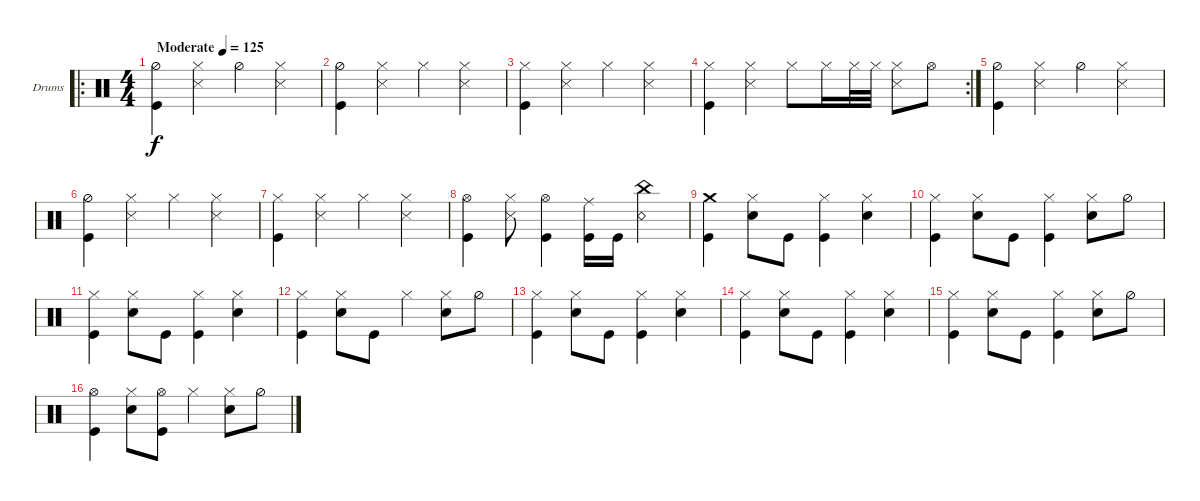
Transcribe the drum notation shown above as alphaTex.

\bracketExtendMode groupsimilarinstruments
\firstSystemTrackNameOrientation horizontal
\otherSystemsTrackNameOrientation horizontal
\track ("Drumkit" "Drums") {instrument percussion}
\staff {score}
\articulation defaults
\ro
\ts (4 4)
\beaming (8 2 2 2 2)
\tempo (125 "Moderate")
\clef neutral
\ks c
("Hi-Hat (half)" "Kick (hit)").4{dy f} ("Hi-Hat (closed)" "Snare (side stick) 3").4 "Hi-Hat (half)".4 ("Hi-Hat (closed)" "Snare (side stick) 3").4 |
("Hi-Hat (half)" "Kick (hit)").4 ("Hi-Hat (closed)" "Snare (side stick) 3").4 "Hi-Hat (closed)".4 ("Hi-Hat (closed)" "Snare (side stick) 3").4 |
("Hi-Hat (closed)" "Kick (hit)").4 ("Hi-Hat (closed)" "Snare (side stick) 3").4 "Hi-Hat (closed)".4 ("Hi-Hat (closed)" "Snare (side stick) 3").4 |
\rc 2
("Hi-Hat (closed)" "Kick (hit)").4 ("Hi-Hat (closed)" "Snare (side stick) 3").4 "Hi-Hat (closed)".8 "Hi-Hat (closed)".16 "Hi-Hat (closed)".32 "Hi-Hat (closed)".32 ("Snare (side stick) 3" "Hi-Hat (closed)").8 "Hi-Hat (open)".8 |
("Hi-Hat (half)" "Kick (hit)").4 ("Hi-Hat (closed)" "Snare (side stick) 3").4 "Hi-Hat (half)".4 ("Hi-Hat (closed)" "Snare (side stick) 3").4 |
("Hi-Hat (half)" "Kick (hit)").4 ("Hi-Hat (closed)" "Snare (side stick) 3").4 "Hi-Hat (closed)".4 ("Hi-Hat (closed)" "Snare (side stick) 3").4 |
("Hi-Hat (closed)" "Kick (hit)").4 ("Hi-Hat (closed)" "Snare (side stick) 3").4 "Hi-Hat (closed)".4 ("Hi-Hat (closed)" "Snare (side stick) 3").4 |
("Hi-Hat (open)" "Kick (hit)").4 ("Hi-Hat (closed)" "Snare (side stick) 3").8 ("Hi-Hat (open)" "Kick (hit)").4 ("Kick (hit)" "Ride (middle)").16 "Kick (hit)".16 ("Snare (rim shot)" "China (hit)").4 |
("Kick (hit)" "Crash medium (hit)").4 ("Snare (hit) 2" "Hi-Hat (closed)").8 "Kick (hit)".8 ("Hi-Hat (closed)" "Kick (hit)").4 ("Hi-Hat (closed)" "Snare (hit) 2").4 |
("Kick (hit)" "Hi-Hat (closed)").4 ("Snare (hit) 2" "Hi-Hat (closed)").8 "Kick (hit)".8 ("Hi-Hat (closed)" "Kick (hit)").4 ("Hi-Hat (closed)" "Snare (hit) 2").8 "Hi-Hat (half)".8 |
("Kick (hit)" "Hi-Hat (closed)").4 ("Snare (hit) 2" "Hi-Hat (closed)").8 "Kick (hit)".8 ("Hi-Hat (closed)" "Kick (hit)").4 ("Hi-Hat (closed)" "Snare (hit) 2").4 |
("Kick (hit)" "Hi-Hat (closed)").4 ("Snare (hit) 2" "Hi-Hat (closed)").8 "Kick (hit)".8 "Hi-Hat (closed)".4 ("Hi-Hat (closed)" "Snare (hit) 2").8 "Hi-Hat (half)".8 |
("Kick (hit)" "Hi-Hat (closed)").4 ("Snare (hit) 2" "Hi-Hat (closed)").8 "Kick (hit)".8 ("Hi-Hat (closed)" "Kick (hit)").4 ("Hi-Hat (closed)" "Snare (hit) 2").4 |
("Kick (hit)" "Hi-Hat (closed)").4 ("Snare (hit) 2" "Hi-Hat (closed)").8 "Kick (hit)".8 ("Hi-Hat (closed)" "Kick (hit)").4 ("Hi-Hat (closed)" "Snare (hit) 2").4 |
("Kick (hit)" "Hi-Hat (closed)").4 ("Snare (hit) 2" "Hi-Hat (closed)").8 "Kick (hit)".8 ("Hi-Hat (closed)" "Kick (hit)").4 ("Hi-Hat (closed)" "Snare (hit) 2").8 "Hi-Hat (half)".8 |
("Kick (hit)" "Hi-Hat (open)").4 ("Snare (hit) 2" "Hi-Hat (closed)").8 ("Kick (hit)" "Hi-Hat (open)").8 "Hi-Hat (closed)".4 ("Hi-Hat (closed)" "Snare (hit) 2").8 "Hi-Hat (half)".8
